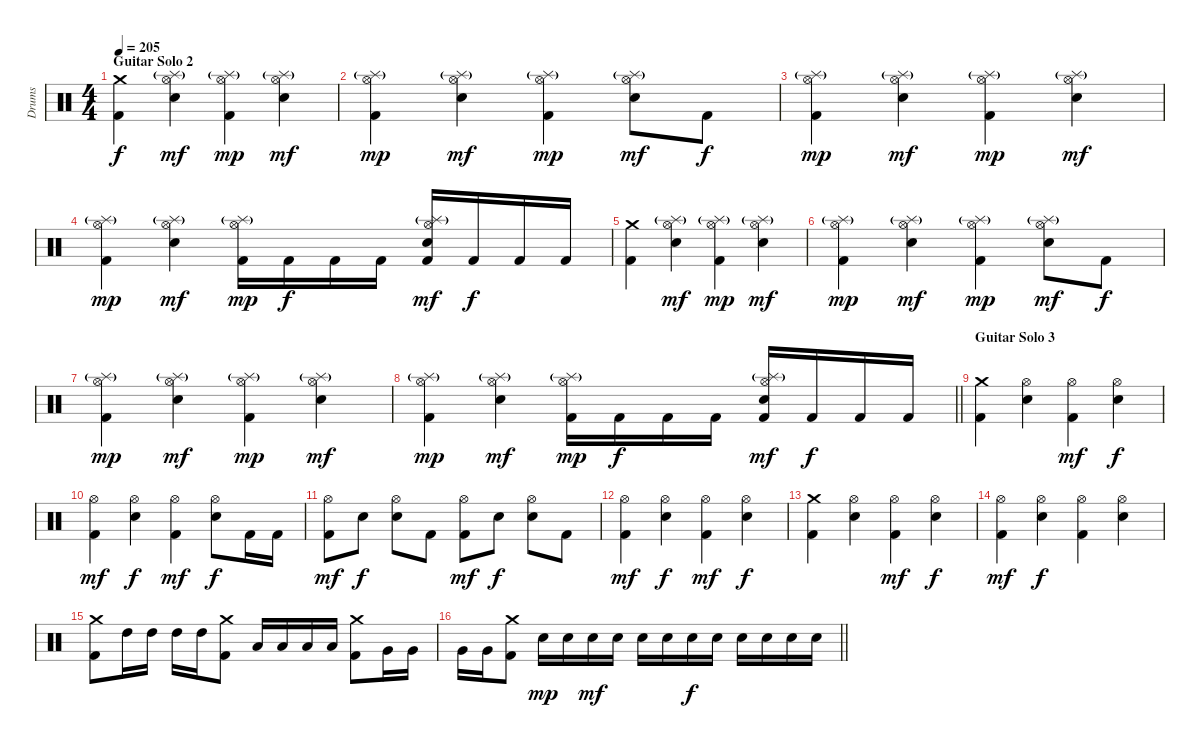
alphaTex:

\track ("Drums" "Drums") {instrument percussion}
\staff {score}
\articulation defaults
\ts (4 4)
\section ("" "Guitar Solo 2")
\tempo 205
\clef neutral
\ks c
("Crash medium (hit)" "Kick (hit) 2").4{dy f} ("Splash (hit)"{g} "Hi-Hat (open)" "Electric Snare (hit)").4{dy mf} ("Splash (hit)"{g} "Hi-Hat (open)" "Kick (hit) 2").4{dy mp} ("Splash (hit)"{g} "Hi-Hat (open)" "Electric Snare (hit)").4{dy mf} |
("Splash (hit)"{g} "Hi-Hat (open)" "Kick (hit) 2").4{dy mp} ("Splash (hit)"{g} "Hi-Hat (open)" "Electric Snare (hit)").4{dy mf} ("Splash (hit)"{g} "Hi-Hat (open)" "Kick (hit) 2").4{dy mp} ("Splash (hit)"{g} "Hi-Hat (open)" "Electric Snare (hit)").8{dy mf} "Kick (hit) 2".8{dy f} |
("Splash (hit)"{g} "Hi-Hat (open)" "Kick (hit) 2").4{dy mp} ("Splash (hit)"{g} "Hi-Hat (open)" "Electric Snare (hit)").4{dy mf} ("Splash (hit)"{g} "Hi-Hat (open)" "Kick (hit) 2").4{dy mp} ("Splash (hit)"{g} "Hi-Hat (open)" "Electric Snare (hit)").4{dy mf} |
("Splash (hit)"{g} "Hi-Hat (open)" "Kick (hit) 2").4{dy mp} ("Splash (hit)"{g} "Hi-Hat (open)" "Electric Snare (hit)").4{dy mf} ("Splash (hit)"{g} "Hi-Hat (open)" "Kick (hit) 2").16{dy mp} "Kick (hit) 2".16{dy f} "Kick (hit) 2".16 "Kick (hit) 2".16 ("Splash (hit)"{g} "Hi-Hat (open)" "Electric Snare (hit)" "Kick (hit) 2").16{dy mf} "Kick (hit) 2".16{dy f} "Kick (hit) 2".16 "Kick (hit) 2".16 |
("Crash medium (hit)" "Kick (hit) 2").4 ("Splash (hit)"{g} "Hi-Hat (open)" "Electric Snare (hit)").4{dy mf} ("Splash (hit)"{g} "Hi-Hat (open)" "Kick (hit) 2").4{dy mp} ("Splash (hit)"{g} "Hi-Hat (open)" "Electric Snare (hit)").4{dy mf} |
("Splash (hit)"{g} "Hi-Hat (open)" "Kick (hit) 2").4{dy mp} ("Splash (hit)"{g} "Hi-Hat (open)" "Electric Snare (hit)").4{dy mf} ("Splash (hit)"{g} "Hi-Hat (open)" "Kick (hit) 2").4{dy mp} ("Splash (hit)"{g} "Hi-Hat (open)" "Electric Snare (hit)").8{dy mf} "Kick (hit) 2".8{dy f} |
("Splash (hit)"{g} "Hi-Hat (open)" "Kick (hit) 2").4{dy mp} ("Splash (hit)"{g} "Hi-Hat (open)" "Electric Snare (hit)").4{dy mf} ("Splash (hit)"{g} "Hi-Hat (open)" "Kick (hit) 2").4{dy mp} ("Splash (hit)"{g} "Hi-Hat (open)" "Electric Snare (hit)").4{dy mf} |
\barLineRight lightlight
("Splash (hit)"{g} "Hi-Hat (open)" "Kick (hit) 2").4{dy mp} ("Splash (hit)"{g} "Hi-Hat (open)" "Electric Snare (hit)").4{dy mf} ("Splash (hit)"{g} "Hi-Hat (open)" "Kick (hit) 2").16{dy mp} "Kick (hit) 2".16{dy f} "Kick (hit) 2".16 "Kick (hit) 2".16 ("Splash (hit)"{g} "Hi-Hat (open)" "Electric Snare (hit)" "Kick (hit) 2").16{dy mf} "Kick (hit) 2".16{dy f} "Kick (hit) 2".16 "Kick (hit) 2".16 |
\section ("" "Guitar Solo 3")
("Crash medium (hit)" "Kick (hit) 2").4 ("Hi-Hat (open)" "Electric Snare (hit)").4 ("Hi-Hat (open)" "Kick (hit) 2").4{dy mf} ("Hi-Hat (open)" "Electric Snare (hit)").4{dy f} |
("Hi-Hat (open)" "Kick (hit) 2").4{dy mf} ("Hi-Hat (open)" "Electric Snare (hit)").4{dy f} ("Hi-Hat (open)" "Kick (hit) 2").4{dy mf} ("Hi-Hat (open)" "Electric Snare (hit)").8{dy f} "Kick (hit) 2".16 "Kick (hit) 2".16 |
("Hi-Hat (open)" "Kick (hit) 2").8{dy mf} "Electric Snare (hit)".8{dy f} ("Hi-Hat (open)" "Electric Snare (hit)").8 "Kick (hit) 2".8 ("Hi-Hat (open)" "Kick (hit) 2").8{dy mf} "Electric Snare (hit)".8{dy f} ("Hi-Hat (open)" "Electric Snare (hit)").8 "Kick (hit) 2".8 |
("Hi-Hat (open)" "Kick (hit) 2").4{dy mf} ("Hi-Hat (open)" "Electric Snare (hit)").4{dy f} ("Hi-Hat (open)" "Kick (hit) 2").4{dy mf} ("Hi-Hat (open)" "Electric Snare (hit)").4{dy f} |
("Crash medium (hit)" "Kick (hit) 2").4 ("Hi-Hat (open)" "Electric Snare (hit)").4 ("Hi-Hat (open)" "Kick (hit) 2").4{dy mf} ("Hi-Hat (open)" "Electric Snare (hit)").4{dy f} |
("Hi-Hat (open)" "Kick (hit) 2").4{dy mf} ("Hi-Hat (open)" "Electric Snare (hit)").4{dy f} ("Hi-Hat (open)" "Kick (hit) 2").4 ("Hi-Hat (open)" "Electric Snare (hit)").4 |
("Crash medium (hit)" "Kick (hit) 2").8 "High Tom (hit)".16 "High Tom (hit)".16 "High Tom (hit)".16 "High Tom (hit)".16 ("Crash medium (hit)" "Kick (hit) 2").8 "Low Tom (hit)".16 "Low Tom (hit)".16 "Low Tom (hit)".16 "Low Tom (hit)".16 ("Crash medium (hit)" "Kick (hit) 2").8 "Very Low Tom (hit)".16 "Very Low Tom (hit)".16 |
\barLineRight lightlight "Very Low Tom (hit)".16 "Very Low Tom (hit)".16
("Crash medium (hit)" "Kick (hit) 2").8 "Electric Snare (hit)".16{dy mp} "Electric Snare (hit)".16 "Electric Snare (hit)".16{dy mf} "Electric Snare (hit)".16 "Electric Snare (hit)".16 "Electric Snare (hit)".16 "Electric Snare (hit)".16{dy f} "Electric Snare (hit)".16 "Electric Snare (hit)".16 "Electric Snare (hit)".16 "Electric Snare (hit)".16 "Electric Snare (hit)".16
